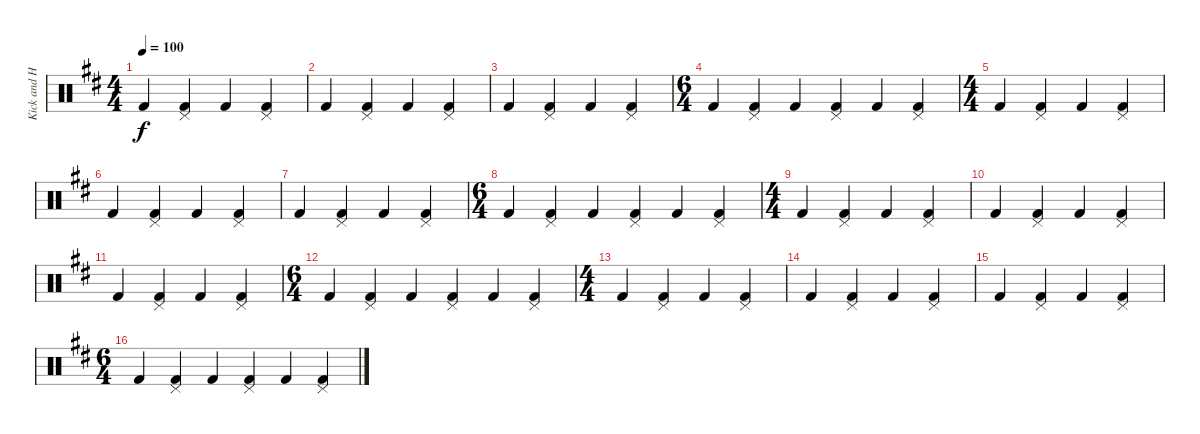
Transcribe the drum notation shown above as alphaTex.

\track ("Kick and HiHat" "Kick and H") {instrument percussion}
\staff {score}
\articulation defaults
\ts (4 4)
\tempo 100
\clef neutral
\ks d "Kick (hit) 2".4{dy f}
("Pedal Hi-Hat (hit)" "Kick (hit) 2").4 "Kick (hit) 2".4 ("Pedal Hi-Hat (hit)" "Kick (hit) 2").4 |
"Kick (hit) 2".4 ("Pedal Hi-Hat (hit)" "Kick (hit) 2").4 "Kick (hit) 2".4 ("Pedal Hi-Hat (hit)" "Kick (hit) 2").4 |
"Kick (hit) 2".4 ("Pedal Hi-Hat (hit)" "Kick (hit) 2").4 "Kick (hit) 2".4 ("Pedal Hi-Hat (hit)" "Kick (hit) 2").4 |
\ts (6 4)
"Kick (hit) 2".4 ("Pedal Hi-Hat (hit)" "Kick (hit) 2").4 "Kick (hit) 2".4 ("Pedal Hi-Hat (hit)" "Kick (hit) 2").4 "Kick (hit) 2".4 ("Pedal Hi-Hat (hit)" "Kick (hit) 2").4 |
\ts (4 4)
"Kick (hit) 2".4 ("Pedal Hi-Hat (hit)" "Kick (hit) 2").4 "Kick (hit) 2".4 ("Pedal Hi-Hat (hit)" "Kick (hit) 2").4 |
"Kick (hit) 2".4 ("Pedal Hi-Hat (hit)" "Kick (hit) 2").4 "Kick (hit) 2".4 ("Pedal Hi-Hat (hit)" "Kick (hit) 2").4 |
"Kick (hit) 2".4 ("Pedal Hi-Hat (hit)" "Kick (hit) 2").4 "Kick (hit) 2".4 ("Pedal Hi-Hat (hit)" "Kick (hit) 2").4 |
\ts (6 4)
"Kick (hit) 2".4 ("Pedal Hi-Hat (hit)" "Kick (hit) 2").4 "Kick (hit) 2".4 ("Pedal Hi-Hat (hit)" "Kick (hit) 2").4 "Kick (hit) 2".4 ("Pedal Hi-Hat (hit)" "Kick (hit) 2").4 |
\ts (4 4)
"Kick (hit) 2".4 ("Pedal Hi-Hat (hit)" "Kick (hit) 2").4 "Kick (hit) 2".4 ("Pedal Hi-Hat (hit)" "Kick (hit) 2").4 |
"Kick (hit) 2".4 ("Pedal Hi-Hat (hit)" "Kick (hit) 2").4 "Kick (hit) 2".4 ("Pedal Hi-Hat (hit)" "Kick (hit) 2").4 |
"Kick (hit) 2".4 ("Pedal Hi-Hat (hit)" "Kick (hit) 2").4 "Kick (hit) 2".4 ("Pedal Hi-Hat (hit)" "Kick (hit) 2").4 |
\ts (6 4)
"Kick (hit) 2".4 ("Pedal Hi-Hat (hit)" "Kick (hit) 2").4 "Kick (hit) 2".4 ("Pedal Hi-Hat (hit)" "Kick (hit) 2").4 "Kick (hit) 2".4 ("Pedal Hi-Hat (hit)" "Kick (hit) 2").4 |
\ts (4 4)
"Kick (hit) 2".4 ("Pedal Hi-Hat (hit)" "Kick (hit) 2").4 "Kick (hit) 2".4 ("Pedal Hi-Hat (hit)" "Kick (hit) 2").4 |
"Kick (hit) 2".4 ("Pedal Hi-Hat (hit)" "Kick (hit) 2").4 "Kick (hit) 2".4 ("Pedal Hi-Hat (hit)" "Kick (hit) 2").4 |
"Kick (hit) 2".4 ("Pedal Hi-Hat (hit)" "Kick (hit) 2").4 "Kick (hit) 2".4 ("Pedal Hi-Hat (hit)" "Kick (hit) 2").4 |
\ts (6 4)
"Kick (hit) 2".4 ("Pedal Hi-Hat (hit)" "Kick (hit) 2").4 "Kick (hit) 2".4 ("Pedal Hi-Hat (hit)" "Kick (hit) 2").4 "Kick (hit) 2".4 ("Pedal Hi-Hat (hit)" "Kick (hit) 2").4
